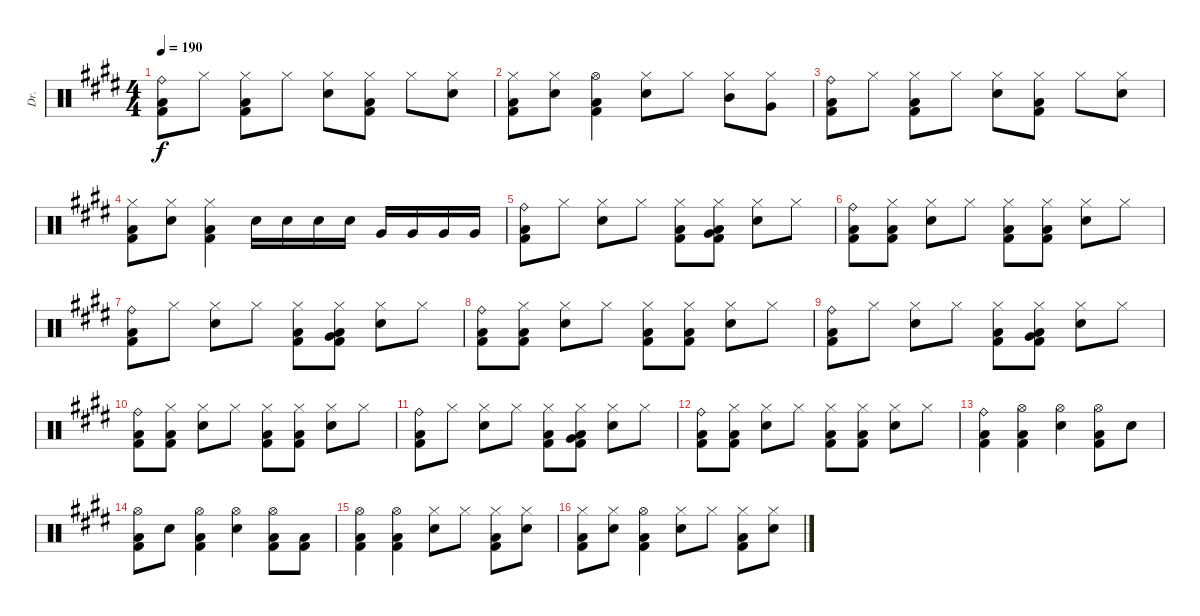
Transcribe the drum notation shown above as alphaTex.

\track ("Dr." "Dr.") {instrument percussion}
\staff {score}
\articulation defaults
\ts (4 4)
\tempo 190
\clef neutral
\ks e
("Ride (bell)" "Low Floor Tom (hit)" "Kick (hit) 2").8{dy f} "Hi-Hat (closed)".8 ("Hi-Hat (closed)" "Low Floor Tom (hit)" "Kick (hit) 2").8 "Hi-Hat (closed)".8 ("Electric Snare (hit)" "Hi-Hat (closed)").8 ("Hi-Hat (closed)" "Low Floor Tom (hit)" "Kick (hit) 2").8 "Hi-Hat (closed)".8 ("Electric Snare (hit)" "Hi-Hat (closed)").8 |
("Hi-Hat (closed)" "Low Floor Tom (hit)" "Kick (hit) 2").8 ("Electric Snare (hit)" "Hi-Hat (closed)").8 ("Hi-Hat (open)" "Low Floor Tom (hit)" "Kick (hit) 2").4 ("Electric Snare (hit)" "Hi-Hat (closed)").8 "Hi-Hat (closed)".8 ("Mid Tom (hit)" "Hi-Hat (closed)").8 ("Very Low Tom (hit)" "Hi-Hat (closed)").8 |
("Ride (bell)" "Low Floor Tom (hit)" "Kick (hit) 2").8 "Hi-Hat (closed)".8 ("Hi-Hat (closed)" "Low Floor Tom (hit)" "Kick (hit) 2").8 "Hi-Hat (closed)".8 ("Electric Snare (hit)" "Hi-Hat (closed)").8 ("Hi-Hat (closed)" "Low Floor Tom (hit)" "Kick (hit) 2").8 "Hi-Hat (closed)".8 ("Electric Snare (hit)" "Hi-Hat (closed)").8 |
("Hi-Hat (closed)" "Low Floor Tom (hit)" "Kick (hit) 2").8 ("Electric Snare (hit)" "Hi-Hat (closed)").8 ("Hi-Hat (closed)" "Low Floor Tom (hit)" "Kick (hit) 2").4 "Electric Snare (hit)".16 "Electric Snare (hit)".16 "Electric Snare (hit)".16 "Electric Snare (hit)".16 "Very Low Tom (hit)".16 "Very Low Tom (hit)".16 "Very Low Tom (hit)".16 "Very Low Tom (hit)".16 |
("Ride (bell)" "Low Floor Tom (hit)" "Kick (hit) 2").8 "Hi-Hat (closed)".8 ("Electric Snare (hit)" "Hi-Hat (closed)").8 "Hi-Hat (closed)".8 ("Hi-Hat (closed)" "Low Floor Tom (hit)" "Kick (hit) 2").8 ("Hi-Hat (closed)" "Low Floor Tom (hit)" "Kick (hit) 2" "Very Low Tom (hit)").8 ("Electric Snare (hit)" "Hi-Hat (closed)").8 "Hi-Hat (closed)".8 |
("Ride (bell)" "Low Floor Tom (hit)" "Kick (hit) 2").8 ("Hi-Hat (closed)" "Low Floor Tom (hit)" "Kick (hit) 2").8 ("Electric Snare (hit)" "Hi-Hat (closed)").8 "Hi-Hat (closed)".8 ("Hi-Hat (closed)" "Low Floor Tom (hit)" "Kick (hit) 2").8 ("Hi-Hat (closed)" "Low Floor Tom (hit)" "Kick (hit) 2").8 ("Electric Snare (hit)" "Hi-Hat (closed)").8 "Hi-Hat (closed)".8 |
("Ride (bell)" "Low Floor Tom (hit)" "Kick (hit) 2").8 "Hi-Hat (closed)".8 ("Electric Snare (hit)" "Hi-Hat (closed)").8 "Hi-Hat (closed)".8 ("Hi-Hat (closed)" "Low Floor Tom (hit)" "Kick (hit) 2").8 ("Hi-Hat (closed)" "Low Floor Tom (hit)" "Kick (hit) 2" "Very Low Tom (hit)").8 ("Electric Snare (hit)" "Hi-Hat (closed)").8 "Hi-Hat (closed)".8 |
("Ride (bell)" "Low Floor Tom (hit)" "Kick (hit) 2").8 ("Hi-Hat (closed)" "Low Floor Tom (hit)" "Kick (hit) 2").8 ("Electric Snare (hit)" "Hi-Hat (closed)").8 "Hi-Hat (closed)".8 ("Hi-Hat (closed)" "Low Floor Tom (hit)" "Kick (hit) 2").8 ("Hi-Hat (closed)" "Low Floor Tom (hit)" "Kick (hit) 2").8 ("Electric Snare (hit)" "Hi-Hat (closed)").8 "Hi-Hat (closed)".8 |
("Ride (bell)" "Low Floor Tom (hit)" "Kick (hit) 2").8 "Hi-Hat (closed)".8 ("Electric Snare (hit)" "Hi-Hat (closed)").8 "Hi-Hat (closed)".8 ("Hi-Hat (closed)" "Low Floor Tom (hit)" "Kick (hit) 2").8 ("Hi-Hat (closed)" "Low Floor Tom (hit)" "Kick (hit) 2" "Very Low Tom (hit)").8 ("Electric Snare (hit)" "Hi-Hat (closed)").8 "Hi-Hat (closed)".8 |
("Ride (bell)" "Low Floor Tom (hit)" "Kick (hit) 2").8 ("Hi-Hat (closed)" "Low Floor Tom (hit)" "Kick (hit) 2").8 ("Electric Snare (hit)" "Hi-Hat (closed)").8 "Hi-Hat (closed)".8 ("Hi-Hat (closed)" "Low Floor Tom (hit)" "Kick (hit) 2").8 ("Hi-Hat (closed)" "Low Floor Tom (hit)" "Kick (hit) 2").8 ("Electric Snare (hit)" "Hi-Hat (closed)").8 "Hi-Hat (closed)".8 |
("Ride (bell)" "Low Floor Tom (hit)" "Kick (hit) 2").8 "Hi-Hat (closed)".8 ("Electric Snare (hit)" "Hi-Hat (closed)").8 "Hi-Hat (closed)".8 ("Hi-Hat (closed)" "Low Floor Tom (hit)" "Kick (hit) 2").8 ("Hi-Hat (closed)" "Low Floor Tom (hit)" "Kick (hit) 2" "Very Low Tom (hit)").8 ("Electric Snare (hit)" "Hi-Hat (closed)").8 "Hi-Hat (closed)".8 |
("Ride (bell)" "Low Floor Tom (hit)" "Kick (hit) 2").8 ("Hi-Hat (closed)" "Low Floor Tom (hit)" "Kick (hit) 2").8 ("Electric Snare (hit)" "Hi-Hat (closed)").8 "Hi-Hat (closed)".8 ("Hi-Hat (closed)" "Low Floor Tom (hit)" "Kick (hit) 2").8 ("Hi-Hat (closed)" "Low Floor Tom (hit)" "Kick (hit) 2").8 ("Electric Snare (hit)" "Hi-Hat (closed)").8 "Hi-Hat (closed)".8 |
("Ride (bell)" "Low Floor Tom (hit)" "Kick (hit) 2").4 ("Hi-Hat (open)" "Low Floor Tom (hit)" "Kick (hit) 2").4 ("Electric Snare (hit)" "Hi-Hat (open)").4 ("Hi-Hat (open)" "Low Floor Tom (hit)" "Kick (hit) 2").8 "Electric Snare (hit)".8 |
("Hi-Hat (open)" "Low Floor Tom (hit)" "Kick (hit) 2").8 "Electric Snare (hit)".8 ("Hi-Hat (open)" "Low Floor Tom (hit)" "Kick (hit) 2").4 ("Electric Snare (hit)" "Hi-Hat (open)").4 ("Hi-Hat (open)" "Low Floor Tom (hit)" "Kick (hit) 2").8 ("Low Floor Tom (hit)" "Kick (hit) 2").8 |
("Hi-Hat (open)" "Low Floor Tom (hit)" "Kick (hit) 2").4 ("Hi-Hat (open)" "Low Floor Tom (hit)" "Kick (hit) 2").4 ("Electric Snare (hit)" "Hi-Hat (closed)").8 "Hi-Hat (closed)".8 ("Hi-Hat (closed)" "Low Floor Tom (hit)" "Kick (hit) 2").8 ("Electric Snare (hit)" "Hi-Hat (closed)").8 |
("Hi-Hat (closed)" "Low Floor Tom (hit)" "Kick (hit) 2").8 ("Electric Snare (hit)" "Hi-Hat (closed)").8 ("Hi-Hat (open)" "Low Floor Tom (hit)" "Kick (hit) 2").4 ("Electric Snare (hit)" "Hi-Hat (closed)").8 "Hi-Hat (closed)".8 ("Hi-Hat (closed)" "Low Floor Tom (hit)" "Kick (hit) 2").8 ("Electric Snare (hit)" "Hi-Hat (closed)").8
